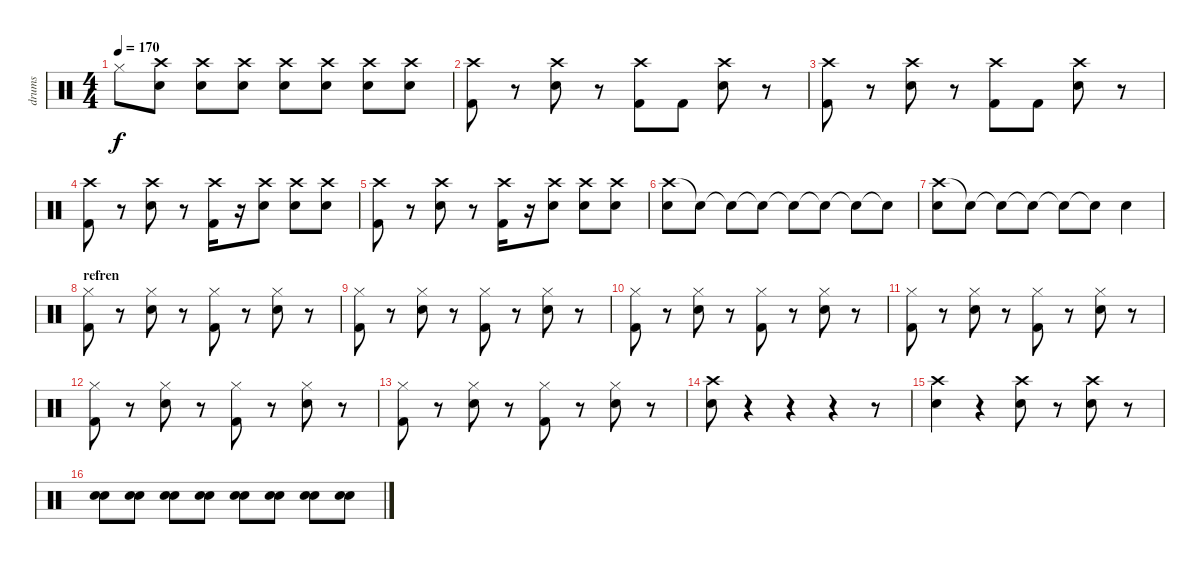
\track ("drums" "drums") {instrument percussion}
\staff {score}
\articulation defaults
\ts (4 4)
\tempo 170
\clef neutral
\ks c "Hi-Hat (closed)".8{dy f}
("Crash high (hit)" "Snare (hit) 2").8 ("Crash high (hit)" "Snare (hit) 2").8 ("Crash high (hit)" "Snare (hit) 2").8 ("Crash high (hit)" "Snare (hit) 2").8 ("Crash high (hit)" "Snare (hit) 2").8 ("Crash high (hit)" "Snare (hit) 2").8 ("Crash high (hit)" "Snare (hit) 2").8 |
("Crash high (hit)" "Kick (hit) 2").8 r.8 ("Crash high (hit)" "Snare (hit) 2").8 r.8 ("Crash high (hit)" "Kick (hit) 2").8 "Kick (hit) 2".8 ("Crash high (hit)" "Snare (hit) 2").8 r.8 |
("Crash high (hit)" "Kick (hit) 2").8 r.8 ("Crash high (hit)" "Snare (hit) 2").8 r.8 ("Crash high (hit)" "Kick (hit) 2").8 "Kick (hit) 2".8 ("Crash high (hit)" "Snare (hit) 2").8 r.8 |
("Crash high (hit)" "Kick (hit) 2").8 r.8 ("Crash high (hit)" "Snare (hit) 2").8 r.8 ("Crash high (hit)" "Kick (hit) 2").16 r.16 ("Crash high (hit)" "Snare (hit) 2").8 ("Crash high (hit)" "Snare (hit) 2").8 ("Crash high (hit)" "Snare (hit) 2").8 |
("Crash high (hit)" "Kick (hit) 2").8 r.8 ("Crash high (hit)" "Snare (hit) 2").8 r.8 ("Crash high (hit)" "Kick (hit) 2").16 r.16 ("Crash high (hit)" "Snare (hit) 2").8 ("Crash high (hit)" "Snare (hit) 2").8 ("Crash high (hit)" "Snare (hit) 2").8 |
("Crash high (hit)" "Snare (hit) 2").8 "Snare (hit)"{t}.8 "Snare (hit)"{t}.8 "Snare (hit)"{t}.8 "Snare (hit)"{t}.8 "Snare (hit)"{t}.8 "Snare (hit)"{t}.8 "Snare (hit)"{t}.8 |
("Crash high (hit)" "Snare (hit) 2").8 "Snare (hit)"{t}.8 "Snare (hit)"{t}.8 "Snare (hit)"{t}.8 "Snare (hit)"{t}.8 "Snare (hit)"{t}.8 "Snare (hit) 2".4 |
\section ("" "refren")
("Hi-Hat (closed)" "Kick (hit) 2").8 r.8 ("Hi-Hat (closed)" "Snare (hit) 2").8 r.8 ("Hi-Hat (closed)" "Kick (hit) 2").8 r.8 ("Hi-Hat (closed)" "Snare (hit) 2").8 r.8 |
("Hi-Hat (closed)" "Kick (hit) 2").8 r.8 ("Hi-Hat (closed)" "Snare (hit) 2").8 r.8 ("Hi-Hat (closed)" "Kick (hit) 2").8 r.8 ("Hi-Hat (closed)" "Snare (hit) 2").8 r.8 |
("Hi-Hat (closed)" "Kick (hit) 2").8 r.8 ("Hi-Hat (closed)" "Snare (hit) 2").8 r.8 ("Hi-Hat (closed)" "Kick (hit) 2").8 r.8 ("Hi-Hat (closed)" "Snare (hit) 2").8 r.8 |
("Hi-Hat (closed)" "Kick (hit) 2").8 r.8 ("Hi-Hat (closed)" "Snare (hit) 2").8 r.8 ("Hi-Hat (closed)" "Kick (hit) 2").8 r.8 ("Hi-Hat (closed)" "Snare (hit) 2").8 r.8 |
("Hi-Hat (closed)" "Kick (hit) 2").8 r.8 ("Hi-Hat (closed)" "Snare (hit) 2").8 r.8 ("Hi-Hat (closed)" "Kick (hit) 2").8 r.8 ("Hi-Hat (closed)" "Snare (hit) 2").8 r.8 |
("Hi-Hat (closed)" "Kick (hit) 2").8 r.8 ("Hi-Hat (closed)" "Snare (hit) 2").8 r.8 ("Hi-Hat (closed)" "Kick (hit) 2").8 r.8 ("Hi-Hat (closed)" "Snare (hit) 2").8 r.8 |
("Crash high (hit)" "Snare (hit) 2").8 r.4 r.4 r.4 r.8 |
("Crash high (hit)" "Snare (hit) 2").4 r.4 ("Crash high (hit)" "Snare (hit) 2").8 r.8 ("Crash high (hit)" "Snare (hit) 2").8 r.8{volume 0} |
("Snare (hit) 2" "Snare (hit) 2").8{volume 16} ("Snare (hit) 2" "Snare (hit) 2").8 ("Snare (hit) 2" "Snare (hit) 2").8 ("Snare (hit) 2" "Snare (hit) 2").8 ("Snare (hit) 2" "Snare (hit) 2").8 ("Snare (hit) 2" "Snare (hit) 2").8 ("Snare (hit) 2" "Snare (hit) 2").8 ("Snare (hit) 2" "Snare (hit) 2").8
